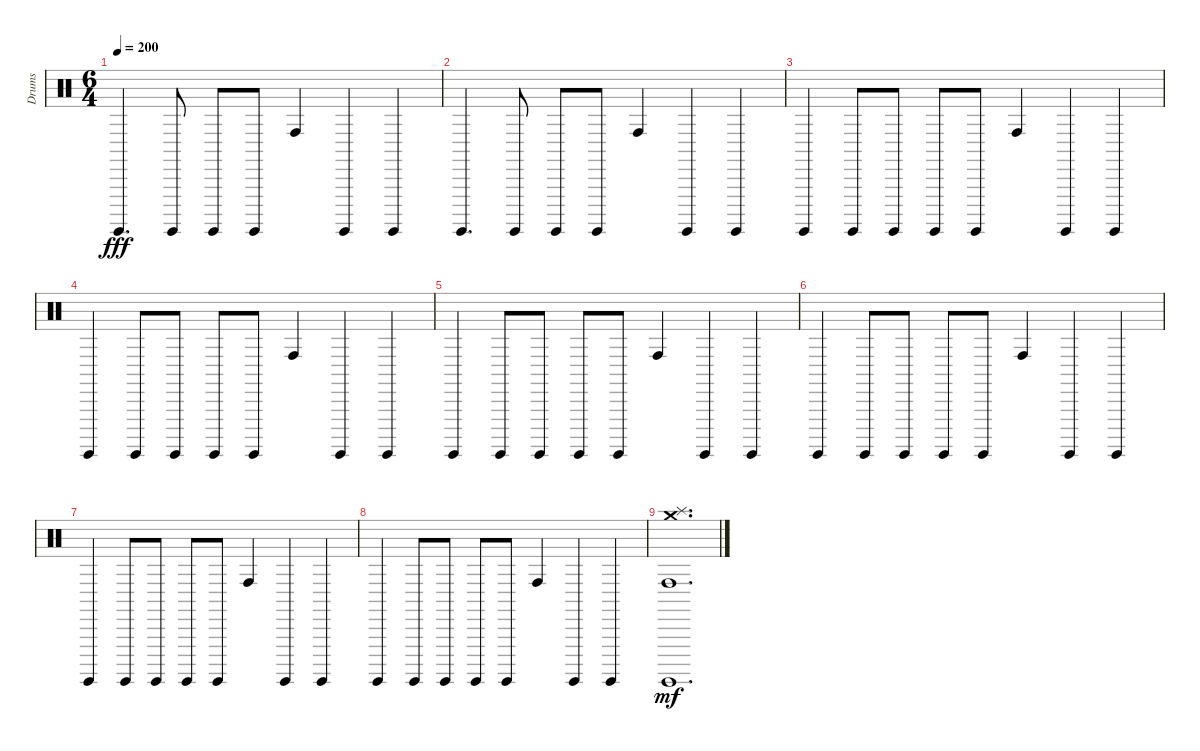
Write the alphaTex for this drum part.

\track ("Drums" "Drums") {instrument percussion}
\staff {score}
\articulation defaults
\ts (6 4)
\tempo 200
\clef neutral
\ks c "Surdo (hit)".4{d dy fff} "Surdo (hit)".8 "Surdo (hit)".8 "Surdo (hit)".8 "Conga high (hit)".4 "Surdo (hit)".4 "Surdo (hit)".4
|
"Surdo (hit)".4{d} "Surdo (hit)".8 "Surdo (hit)".8 "Surdo (hit)".8 "Conga high (hit)".4 "Surdo (hit)".4 "Surdo (hit)".4 |
"Surdo (hit)".4 "Surdo (hit)".8 "Surdo (hit)".8 "Surdo (hit)".8 "Surdo (hit)".8 "Conga high (hit)".4 "Surdo (hit)".4 "Surdo (hit)".4 |
"Surdo (hit)".4 "Surdo (hit)".8 "Surdo (hit)".8 "Surdo (hit)".8 "Surdo (hit)".8 "Conga high (hit)".4 "Surdo (hit)".4 "Surdo (hit)".4 |
"Surdo (hit)".4 "Surdo (hit)".8 "Surdo (hit)".8 "Surdo (hit)".8 "Surdo (hit)".8 "Conga high (hit)".4 "Surdo (hit)".4 "Surdo (hit)".4 |
"Surdo (hit)".4 "Surdo (hit)".8 "Surdo (hit)".8 "Surdo (hit)".8 "Surdo (hit)".8 "Conga high (hit)".4 "Surdo (hit)".4 "Surdo (hit)".4 |
"Surdo (hit)".4 "Surdo (hit)".8 "Surdo (hit)".8 "Surdo (hit)".8 "Surdo (hit)".8 "Conga high (hit)".4 "Surdo (hit)".4 "Surdo (hit)".4 |
"Surdo (hit)".4 "Surdo (hit)".8 "Surdo (hit)".8 "Surdo (hit)".8 "Surdo (hit)".8 "Conga high (hit)".4 "Surdo (hit)".4 "Surdo (hit)".4 |
("Crash medium (hit)" "Splash (hit)" "Conga high (hit)" "Surdo (hit)").1{d dy mf}
